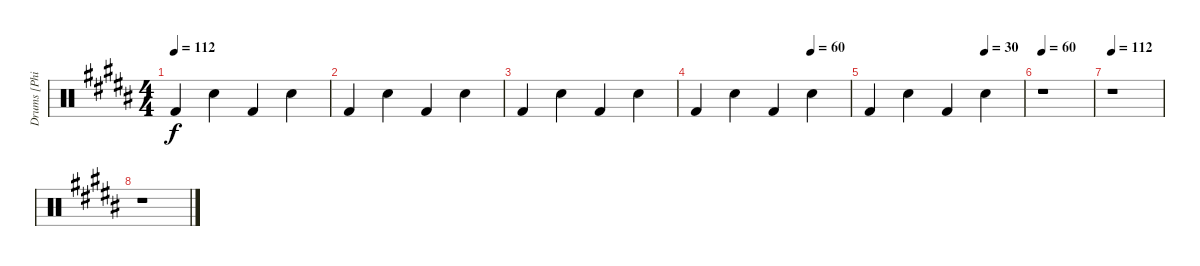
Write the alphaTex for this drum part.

\track ("Drums [Phill]" "Drums [Phi") {instrument percussion}
\staff {score}
\articulation defaults
\ts (4 4)
\tempo 112
\clef neutral
\ks b "Kick (hit) 2".4{dy f} "Snare (hit) 2".4 "Kick (hit) 2".4 "Snare (hit) 2".4
|
"Kick (hit) 2".4 "Snare (hit) 2".4 "Kick (hit) 2".4 "Snare (hit) 2".4 |
"Kick (hit) 2".4 "Snare (hit) 2".4 "Kick (hit) 2".4 "Snare (hit) 2".4 |
\tempo (60 0.75)
"Kick (hit) 2".4 "Snare (hit) 2".4 "Kick (hit) 2".4 "Snare (hit) 2".4 |
\tempo (30 0.75)
"Kick (hit) 2".4 "Snare (hit) 2".4 "Kick (hit) 2".4 "Snare (hit) 2".4 |
\tempo 60
r.1 |
\tempo 112
r.1 |
r.1
